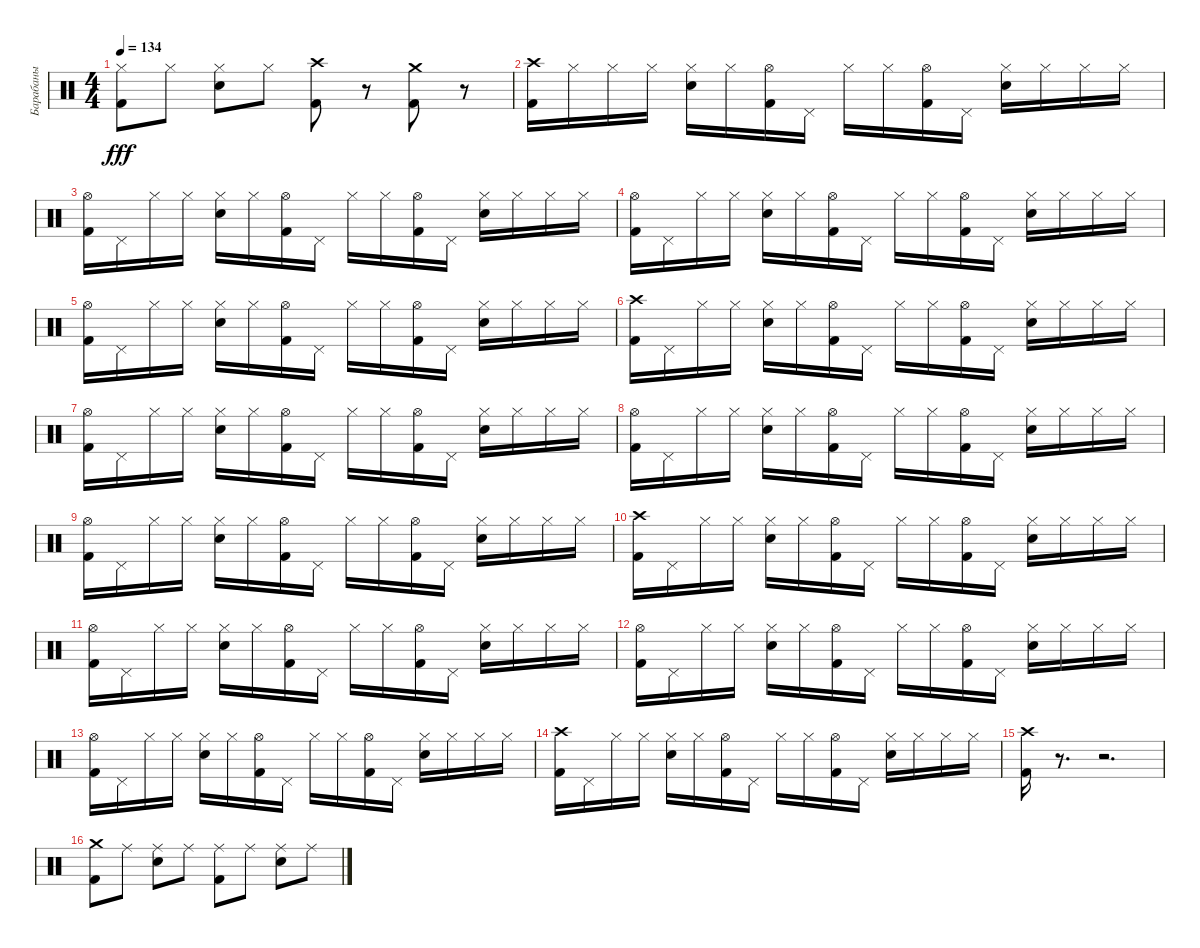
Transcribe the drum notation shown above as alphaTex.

\track ("Барабаны" "Барабаны") {instrument percussion}
\staff {score}
\articulation defaults
\ts (4 4)
\tempo 134
\clef neutral
\ks c
("Hi-Hat (closed)" "Kick (hit) 2").8{dy fff} "Hi-Hat (closed)".8 ("Hi-Hat (closed)" "Electric Snare (hit)").8 "Hi-Hat (closed)".8 ("Crash high (hit)" "Kick (hit) 2").8 r.8 ("Crash medium (hit)" "Kick (hit) 2").8 r.8 |
("Crash high (hit)" "Kick (hit) 2").16 "Hi-Hat (closed)".16 "Hi-Hat (closed)".16 "Hi-Hat (closed)".16 ("Hi-Hat (closed)" "Electric Snare (hit)").16 "Hi-Hat (closed)".16 ("Hi-Hat (open)" "Kick (hit) 2").16 "Pedal Hi-Hat (hit)".16 "Hi-Hat (closed)".16 "Hi-Hat (closed)".16 ("Hi-Hat (open)" "Kick (hit) 2").16 "Pedal Hi-Hat (hit)".16 ("Hi-Hat (closed)" "Electric Snare (hit)").16 "Hi-Hat (closed)".16 "Hi-Hat (closed)".16 "Hi-Hat (closed)".16 |
("Hi-Hat (open)" "Kick (hit) 2").16 "Pedal Hi-Hat (hit)".16 "Hi-Hat (closed)".16 "Hi-Hat (closed)".16 ("Hi-Hat (closed)" "Electric Snare (hit)").16 "Hi-Hat (closed)".16 ("Hi-Hat (open)" "Kick (hit) 2").16 "Pedal Hi-Hat (hit)".16 "Hi-Hat (closed)".16 "Hi-Hat (closed)".16 ("Hi-Hat (open)" "Kick (hit) 2").16 "Pedal Hi-Hat (hit)".16 ("Hi-Hat (closed)" "Electric Snare (hit)").16 "Hi-Hat (closed)".16 "Hi-Hat (closed)".16 "Hi-Hat (closed)".16 |
("Hi-Hat (open)" "Kick (hit) 2").16 "Pedal Hi-Hat (hit)".16 "Hi-Hat (closed)".16 "Hi-Hat (closed)".16 ("Hi-Hat (closed)" "Electric Snare (hit)").16 "Hi-Hat (closed)".16 ("Hi-Hat (open)" "Kick (hit) 2").16 "Pedal Hi-Hat (hit)".16 "Hi-Hat (closed)".16 "Hi-Hat (closed)".16 ("Hi-Hat (open)" "Kick (hit) 2").16 "Pedal Hi-Hat (hit)".16 ("Hi-Hat (closed)" "Electric Snare (hit)").16 "Hi-Hat (closed)".16 "Hi-Hat (closed)".16 "Hi-Hat (closed)".16 |
("Hi-Hat (open)" "Kick (hit) 2").16 "Pedal Hi-Hat (hit)".16 "Hi-Hat (closed)".16 "Hi-Hat (closed)".16 ("Hi-Hat (closed)" "Electric Snare (hit)").16 "Hi-Hat (closed)".16 ("Hi-Hat (open)" "Kick (hit) 2").16 "Pedal Hi-Hat (hit)".16 "Hi-Hat (closed)".16 "Hi-Hat (closed)".16 ("Hi-Hat (open)" "Kick (hit) 2").16 "Pedal Hi-Hat (hit)".16 ("Hi-Hat (closed)" "Electric Snare (hit)").16 "Hi-Hat (closed)".16 "Hi-Hat (closed)".16 "Hi-Hat (closed)".16 |
("Crash high (hit)" "Kick (hit) 2").16 "Pedal Hi-Hat (hit)".16 "Hi-Hat (closed)".16 "Hi-Hat (closed)".16 ("Hi-Hat (closed)" "Electric Snare (hit)").16 "Hi-Hat (closed)".16 ("Hi-Hat (open)" "Kick (hit) 2").16 "Pedal Hi-Hat (hit)".16 "Hi-Hat (closed)".16 "Hi-Hat (closed)".16 ("Hi-Hat (open)" "Kick (hit) 2").16 "Pedal Hi-Hat (hit)".16 ("Hi-Hat (closed)" "Electric Snare (hit)").16 "Hi-Hat (closed)".16 "Hi-Hat (closed)".16 "Hi-Hat (closed)".16 |
("Hi-Hat (open)" "Kick (hit) 2").16 "Pedal Hi-Hat (hit)".16 "Hi-Hat (closed)".16 "Hi-Hat (closed)".16 ("Hi-Hat (closed)" "Electric Snare (hit)").16 "Hi-Hat (closed)".16 ("Hi-Hat (open)" "Kick (hit) 2").16 "Pedal Hi-Hat (hit)".16 "Hi-Hat (closed)".16 "Hi-Hat (closed)".16 ("Hi-Hat (open)" "Kick (hit) 2").16 "Pedal Hi-Hat (hit)".16 ("Hi-Hat (closed)" "Electric Snare (hit)").16 "Hi-Hat (closed)".16 "Hi-Hat (closed)".16 "Hi-Hat (closed)".16 |
("Hi-Hat (open)" "Kick (hit) 2").16 "Pedal Hi-Hat (hit)".16 "Hi-Hat (closed)".16 "Hi-Hat (closed)".16 ("Hi-Hat (closed)" "Electric Snare (hit)").16 "Hi-Hat (closed)".16 ("Hi-Hat (open)" "Kick (hit) 2").16 "Pedal Hi-Hat (hit)".16 "Hi-Hat (closed)".16 "Hi-Hat (closed)".16 ("Hi-Hat (open)" "Kick (hit) 2").16 "Pedal Hi-Hat (hit)".16 ("Hi-Hat (closed)" "Electric Snare (hit)").16 "Hi-Hat (closed)".16 "Hi-Hat (closed)".16 "Hi-Hat (closed)".16 |
("Hi-Hat (open)" "Kick (hit) 2").16 "Pedal Hi-Hat (hit)".16 "Hi-Hat (closed)".16 "Hi-Hat (closed)".16 ("Hi-Hat (closed)" "Electric Snare (hit)").16 "Hi-Hat (closed)".16 ("Hi-Hat (open)" "Kick (hit) 2").16 "Pedal Hi-Hat (hit)".16 "Hi-Hat (closed)".16 "Hi-Hat (closed)".16 ("Hi-Hat (open)" "Kick (hit) 2").16 "Pedal Hi-Hat (hit)".16 ("Hi-Hat (closed)" "Electric Snare (hit)").16 "Hi-Hat (closed)".16 "Hi-Hat (closed)".16 "Hi-Hat (closed)".16 |
("Crash high (hit)" "Kick (hit) 2").16 "Pedal Hi-Hat (hit)".16 "Hi-Hat (closed)".16 "Hi-Hat (closed)".16 ("Hi-Hat (closed)" "Electric Snare (hit)").16 "Hi-Hat (closed)".16 ("Hi-Hat (open)" "Kick (hit) 2").16 "Pedal Hi-Hat (hit)".16 "Hi-Hat (closed)".16 "Hi-Hat (closed)".16 ("Hi-Hat (open)" "Kick (hit) 2").16 "Pedal Hi-Hat (hit)".16 ("Hi-Hat (closed)" "Electric Snare (hit)").16 "Hi-Hat (closed)".16 "Hi-Hat (closed)".16 "Hi-Hat (closed)".16 |
("Hi-Hat (open)" "Kick (hit) 2").16 "Pedal Hi-Hat (hit)".16 "Hi-Hat (closed)".16 "Hi-Hat (closed)".16 ("Hi-Hat (closed)" "Electric Snare (hit)").16 "Hi-Hat (closed)".16 ("Hi-Hat (open)" "Kick (hit) 2").16 "Pedal Hi-Hat (hit)".16 "Hi-Hat (closed)".16 "Hi-Hat (closed)".16 ("Hi-Hat (open)" "Kick (hit) 2").16 "Pedal Hi-Hat (hit)".16 ("Hi-Hat (closed)" "Electric Snare (hit)").16 "Hi-Hat (closed)".16 "Hi-Hat (closed)".16 "Hi-Hat (closed)".16 |
("Hi-Hat (open)" "Kick (hit) 2").16 "Pedal Hi-Hat (hit)".16 "Hi-Hat (closed)".16 "Hi-Hat (closed)".16 ("Hi-Hat (closed)" "Electric Snare (hit)").16 "Hi-Hat (closed)".16 ("Hi-Hat (open)" "Kick (hit) 2").16 "Pedal Hi-Hat (hit)".16 "Hi-Hat (closed)".16 "Hi-Hat (closed)".16 ("Hi-Hat (open)" "Kick (hit) 2").16 "Pedal Hi-Hat (hit)".16 ("Hi-Hat (closed)" "Electric Snare (hit)").16 "Hi-Hat (closed)".16 "Hi-Hat (closed)".16 "Hi-Hat (closed)".16 |
("Hi-Hat (open)" "Kick (hit) 2").16 "Pedal Hi-Hat (hit)".16 "Hi-Hat (closed)".16 "Hi-Hat (closed)".16 ("Hi-Hat (closed)" "Electric Snare (hit)").16 "Hi-Hat (closed)".16 ("Hi-Hat (open)" "Kick (hit) 2").16 "Pedal Hi-Hat (hit)".16 "Hi-Hat (closed)".16 "Hi-Hat (closed)".16 ("Hi-Hat (open)" "Kick (hit) 2").16 "Pedal Hi-Hat (hit)".16 ("Hi-Hat (closed)" "Electric Snare (hit)").16 "Hi-Hat (closed)".16 "Hi-Hat (closed)".16 "Hi-Hat (closed)".16 |
("Crash high (hit)" "Kick (hit) 2").16 "Pedal Hi-Hat (hit)".16 "Hi-Hat (closed)".16 "Hi-Hat (closed)".16 ("Hi-Hat (closed)" "Electric Snare (hit)").16 "Hi-Hat (closed)".16 ("Hi-Hat (open)" "Kick (hit) 2").16 "Pedal Hi-Hat (hit)".16 "Hi-Hat (closed)".16 "Hi-Hat (closed)".16 ("Hi-Hat (open)" "Kick (hit) 2").16 "Pedal Hi-Hat (hit)".16 ("Hi-Hat (closed)" "Electric Snare (hit)").16 "Hi-Hat (closed)".16 "Hi-Hat (closed)".16 "Hi-Hat (closed)".16 |
("Crash high (hit)" "Kick (hit) 2").16 r.8{d} r.2{d} |
("Crash medium (hit)" "Kick (hit) 2").8 "Ride (middle)".8 ("Ride (middle)" "Electric Snare (hit)").8 "Ride (middle)".8 ("Ride (middle)" "Kick (hit) 2").8 "Ride (middle)".8 ("Ride (middle)" "Electric Snare (hit)").8 "Ride (middle)".8
